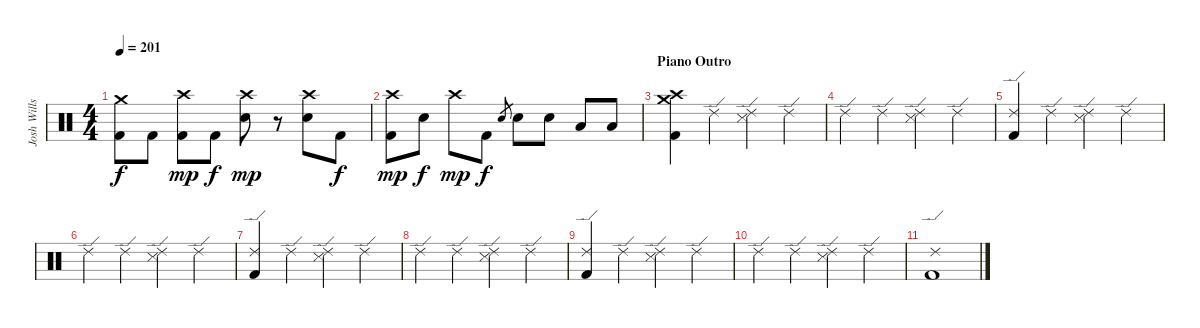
\track ("Josh Wills" "Josh Wills") {instrument percussion}
\staff {score}
\articulation defaults
\ts (4 4)
\tempo 201
\clef neutral
\ks c
("Crash medium (hit)" "Kick (hit) 2").8{dy f} "Kick (hit) 2".8 ("Crash high (hit)" "Kick (hit) 2").8{dy mp} "Kick (hit) 2".8{dy f} ("Crash high (hit)" "Snare (hit) 2").8{dy mp} r.8 ("Crash high (hit)" "Snare (hit) 2").8 "Kick (hit) 2".8{dy f} |
("Crash high (hit)" "Kick (hit) 2").8{dy mp} "Snare (hit) 2".8{dy f} "Crash high (hit)".8{dy mp} "Kick (hit) 2".8{dy f} "Snare (hit) 2".8{gr} "Snare (hit) 2".8 "Snare (hit) 2".8 "Low Tom (hit)".8 "Low Tom (hit)".8 |
\section ("" "Piano Outro")
("Crash high (hit)" "Crash medium (hit)" "Kick (hit) 2").4 "Ride (edge) 2".4 ("Ride (edge) 2" "Snare (side stick) 3").4 "Ride (edge) 2".4 |
"Ride (edge) 2".4 "Ride (edge) 2".4 ("Ride (edge) 2" "Snare (side stick) 3").4 "Ride (edge) 2".4 |
("Ride (edge) 2" "Kick (hit) 2").4 "Ride (edge) 2".4 ("Ride (edge) 2" "Snare (side stick) 3").4 "Ride (edge) 2".4 |
"Ride (edge) 2".4 "Ride (edge) 2".4 ("Ride (edge) 2" "Snare (side stick) 3").4 "Ride (edge) 2".4 |
("Ride (edge) 2" "Kick (hit) 2").4 "Ride (edge) 2".4 ("Ride (edge) 2" "Snare (side stick) 3").4 "Ride (edge) 2".4 |
"Ride (edge) 2".4 "Ride (edge) 2".4 ("Ride (edge) 2" "Snare (side stick) 3").4 "Ride (edge) 2".4 |
("Ride (edge) 2" "Kick (hit) 2").4 "Ride (edge) 2".4 ("Ride (edge) 2" "Snare (side stick) 3").4 "Ride (edge) 2".4 |
"Ride (edge) 2".4 "Ride (edge) 2".4 ("Ride (edge) 2" "Snare (side stick) 3").4 "Ride (edge) 2".4 |
("Ride (edge) 2" "Kick (hit) 2").1
